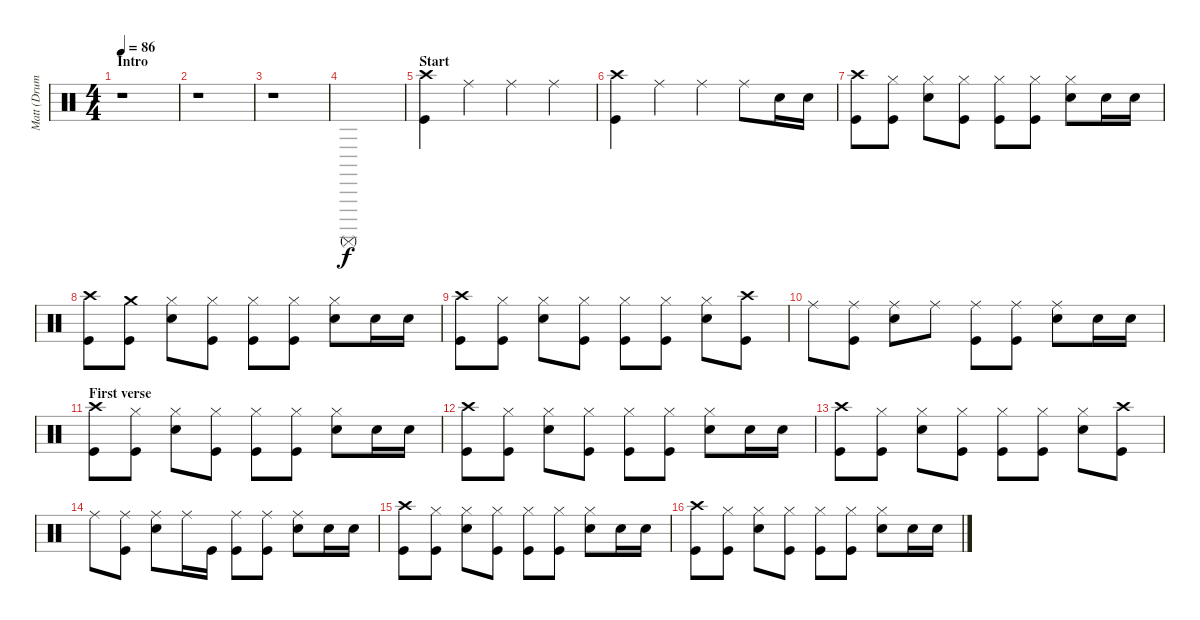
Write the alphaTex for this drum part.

\track ("Matt (Drums)" "Matt (Drum") {instrument percussion}
\staff {score}
\articulation defaults
\ts (4 4)
\section ("" "Intro")
\tempo 86
\clef neutral
\ks c
r.1{dy f} |
r.1 |
r.1 |
"Surdo (mute)".1 |
\section ("" "Start")
("Crash high (hit)" "Kick (hit)").4 "Ride (middle)".4 "Ride (middle)".4 "Ride (middle)".4 |
("Crash high (hit)" "Kick (hit)").4 "Ride (middle)".4 "Ride (middle)".4 "Ride (middle)".8 "Electric Snare (hit)".16 "Electric Snare (hit)".16 |
("Crash high (hit)" "Kick (hit)").8 ("Hi-Hat (closed)" "Kick (hit)").8 ("Hi-Hat (closed)" "Electric Snare (hit)").8 ("Hi-Hat (closed)" "Kick (hit)").8 ("Hi-Hat (closed)" "Kick (hit)").8 ("Hi-Hat (closed)" "Kick (hit)").8 ("Hi-Hat (closed)" "Electric Snare (hit)").8 "Electric Snare (hit)".16 "Electric Snare (hit)".16 |
("Crash high (hit)" "Kick (hit)").8 ("Crash medium (hit)" "Kick (hit)").8 ("Hi-Hat (closed)" "Electric Snare (hit)").8 ("Hi-Hat (closed)" "Kick (hit)").8 ("Hi-Hat (closed)" "Kick (hit)").8 ("Hi-Hat (closed)" "Kick (hit)").8 ("Hi-Hat (closed)" "Electric Snare (hit)").8 "Electric Snare (hit)".16 "Electric Snare (hit)".16 |
("Crash high (hit)" "Kick (hit)").8 ("Hi-Hat (closed)" "Kick (hit)").8 ("Hi-Hat (closed)" "Electric Snare (hit)").8 ("Hi-Hat (closed)" "Kick (hit)").8 ("Hi-Hat (closed)" "Kick (hit)").8 ("Hi-Hat (closed)" "Kick (hit)").8 ("Hi-Hat (closed)" "Electric Snare (hit)").8 ("Crash high (hit)" "Kick (hit)").8 |
"Ride (middle)".8 ("Ride (middle)" "Kick (hit)").8 ("Ride (middle)" "Electric Snare (hit)").8 "Ride (middle)".8 ("Ride (middle)" "Kick (hit)").8 ("Ride (middle)" "Kick (hit)").8 ("Ride (middle)" "Electric Snare (hit)").8 "Electric Snare (hit)".16 "Electric Snare (hit)".16 |
\section ("" "First verse")
("Crash high (hit)" "Kick (hit)").8 ("Hi-Hat (closed)" "Kick (hit)").8 ("Hi-Hat (closed)" "Electric Snare (hit)").8 ("Hi-Hat (closed)" "Kick (hit)").8 ("Hi-Hat (closed)" "Kick (hit)").8 ("Hi-Hat (closed)" "Kick (hit)").8 ("Hi-Hat (closed)" "Electric Snare (hit)").8 "Electric Snare (hit)".16 "Electric Snare (hit)".16 |
("Crash high (hit)" "Kick (hit)").8 ("Hi-Hat (closed)" "Kick (hit)").8 ("Hi-Hat (closed)" "Electric Snare (hit)").8 ("Hi-Hat (closed)" "Kick (hit)").8 ("Hi-Hat (closed)" "Kick (hit)").8 ("Hi-Hat (closed)" "Kick (hit)").8 ("Hi-Hat (closed)" "Electric Snare (hit)").8 "Electric Snare (hit)".16 "Electric Snare (hit)".16 |
("Crash high (hit)" "Kick (hit)").8 ("Hi-Hat (closed)" "Kick (hit)").8 ("Hi-Hat (closed)" "Electric Snare (hit)").8 ("Hi-Hat (closed)" "Kick (hit)").8 ("Hi-Hat (closed)" "Kick (hit)").8 ("Hi-Hat (closed)" "Kick (hit)").8 ("Hi-Hat (closed)" "Electric Snare (hit)").8 ("Crash high (hit)" "Kick (hit)").8 |
"Ride (middle)".8 ("Ride (middle)" "Kick (hit)").8 ("Ride (middle)" "Electric Snare (hit)").8 "Ride (middle)".16 "Kick (hit)".16 ("Ride (middle)" "Kick (hit)").8 ("Ride (middle)" "Kick (hit)").8 ("Ride (middle)" "Electric Snare (hit)").8 "Electric Snare (hit)".16 "Electric Snare (hit)".16 |
("Crash high (hit)" "Kick (hit)").8 ("Hi-Hat (closed)" "Kick (hit)").8 ("Hi-Hat (closed)" "Electric Snare (hit)").8 ("Hi-Hat (closed)" "Kick (hit)").8 ("Hi-Hat (closed)" "Kick (hit)").8 ("Hi-Hat (closed)" "Kick (hit)").8 ("Hi-Hat (closed)" "Electric Snare (hit)").8 "Electric Snare (hit)".16 "Electric Snare (hit)".16 |
("Crash high (hit)" "Kick (hit)").8 ("Hi-Hat (closed)" "Kick (hit)").8 ("Hi-Hat (closed)" "Electric Snare (hit)").8 ("Hi-Hat (closed)" "Kick (hit)").8 ("Hi-Hat (closed)" "Kick (hit)").8 ("Hi-Hat (closed)" "Kick (hit)").8 ("Hi-Hat (closed)" "Electric Snare (hit)").8 "Electric Snare (hit)".16 "Electric Snare (hit)".16
